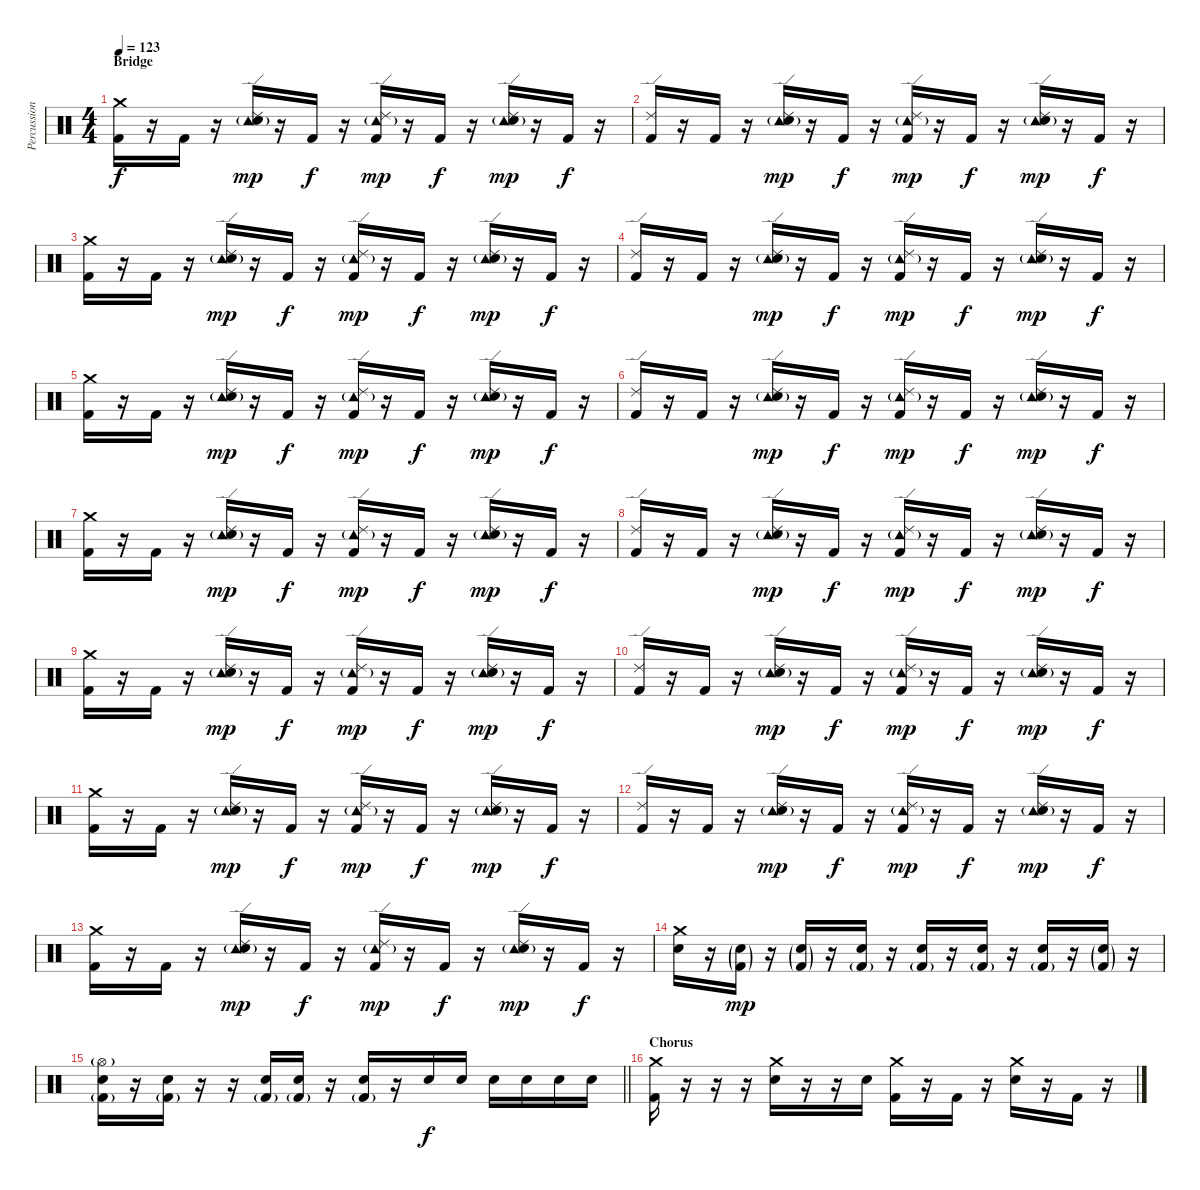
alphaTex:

\track ("Percussion" "Percussion") {instrument percussion}
\staff {score}
\articulation defaults
\ts (4 4)
\section ("" "Bridge")
\tempo 123
\clef neutral
\ks c
("Crash medium (hit)" "Kick (hit) 2").16{dy f} r.16 "Kick (hit) 2".16 r.16 ("Tambourine (hit)"{g} "Ride (edge) 2" "Electric Snare (hit)").16{dy mp} r.16 "Kick (hit) 2".16{dy f} r.16 ("Tambourine (hit)"{g} "Ride (edge) 2" "Kick (hit) 2").16{dy mp} r.16 "Kick (hit) 2".16{dy f} r.16 ("Tambourine (hit)"{g} "Ride (edge) 2" "Electric Snare (hit)").16{dy mp} r.16 "Kick (hit) 2".16{dy f} r.16 |
("Ride (edge) 2" "Kick (hit) 2").16 r.16 "Kick (hit) 2".16 r.16 ("Tambourine (hit)"{g} "Ride (edge) 2" "Electric Snare (hit)").16{dy mp} r.16 "Kick (hit) 2".16{dy f} r.16 ("Tambourine (hit)"{g} "Ride (edge) 2" "Kick (hit) 2").16{dy mp} r.16 "Kick (hit) 2".16{dy f} r.16 ("Tambourine (hit)"{g} "Ride (edge) 2" "Electric Snare (hit)").16{dy mp} r.16 "Kick (hit) 2".16{dy f} r.16 |
("Crash medium (hit)" "Kick (hit) 2").16 r.16 "Kick (hit) 2".16 r.16 ("Tambourine (hit)"{g} "Ride (edge) 2" "Electric Snare (hit)").16{dy mp} r.16 "Kick (hit) 2".16{dy f} r.16 ("Tambourine (hit)"{g} "Ride (edge) 2" "Kick (hit) 2").16{dy mp} r.16 "Kick (hit) 2".16{dy f} r.16 ("Tambourine (hit)"{g} "Ride (edge) 2" "Electric Snare (hit)").16{dy mp} r.16 "Kick (hit) 2".16{dy f} r.16 |
("Ride (edge) 2" "Kick (hit) 2").16 r.16 "Kick (hit) 2".16 r.16 ("Tambourine (hit)"{g} "Ride (edge) 2" "Electric Snare (hit)").16{dy mp} r.16 "Kick (hit) 2".16{dy f} r.16 ("Tambourine (hit)"{g} "Ride (edge) 2" "Kick (hit) 2").16{dy mp} r.16 "Kick (hit) 2".16{dy f} r.16 ("Tambourine (hit)"{g} "Ride (edge) 2" "Electric Snare (hit)").16{dy mp} r.16 "Kick (hit) 2".16{dy f} r.16 |
("Crash medium (hit)" "Kick (hit) 2").16 r.16 "Kick (hit) 2".16 r.16 ("Tambourine (hit)"{g} "Ride (edge) 2" "Electric Snare (hit)").16{dy mp} r.16 "Kick (hit) 2".16{dy f} r.16 ("Tambourine (hit)"{g} "Ride (edge) 2" "Kick (hit) 2").16{dy mp} r.16 "Kick (hit) 2".16{dy f} r.16 ("Tambourine (hit)"{g} "Ride (edge) 2" "Electric Snare (hit)").16{dy mp} r.16 "Kick (hit) 2".16{dy f} r.16 |
("Ride (edge) 2" "Kick (hit) 2").16 r.16 "Kick (hit) 2".16 r.16 ("Tambourine (hit)"{g} "Ride (edge) 2" "Electric Snare (hit)").16{dy mp} r.16 "Kick (hit) 2".16{dy f} r.16 ("Tambourine (hit)"{g} "Ride (edge) 2" "Kick (hit) 2").16{dy mp} r.16 "Kick (hit) 2".16{dy f} r.16 ("Tambourine (hit)"{g} "Ride (edge) 2" "Electric Snare (hit)").16{dy mp} r.16 "Kick (hit) 2".16{dy f} r.16 |
("Crash medium (hit)" "Kick (hit) 2").16 r.16 "Kick (hit) 2".16 r.16 ("Tambourine (hit)"{g} "Ride (edge) 2" "Electric Snare (hit)").16{dy mp} r.16 "Kick (hit) 2".16{dy f} r.16 ("Tambourine (hit)"{g} "Ride (edge) 2" "Kick (hit) 2").16{dy mp} r.16 "Kick (hit) 2".16{dy f} r.16 ("Tambourine (hit)"{g} "Ride (edge) 2" "Electric Snare (hit)").16{dy mp} r.16 "Kick (hit) 2".16{dy f} r.16 |
("Ride (edge) 2" "Kick (hit) 2").16 r.16 "Kick (hit) 2".16 r.16 ("Tambourine (hit)"{g} "Ride (edge) 2" "Electric Snare (hit)").16{dy mp} r.16 "Kick (hit) 2".16{dy f} r.16 ("Tambourine (hit)"{g} "Ride (edge) 2" "Kick (hit) 2").16{dy mp} r.16 "Kick (hit) 2".16{dy f} r.16 ("Tambourine (hit)"{g} "Ride (edge) 2" "Electric Snare (hit)").16{dy mp} r.16 "Kick (hit) 2".16{dy f} r.16 |
("Crash medium (hit)" "Kick (hit) 2").16 r.16 "Kick (hit) 2".16 r.16 ("Tambourine (hit)"{g} "Ride (edge) 2" "Electric Snare (hit)").16{dy mp} r.16 "Kick (hit) 2".16{dy f} r.16 ("Tambourine (hit)"{g} "Ride (edge) 2" "Kick (hit) 2").16{dy mp} r.16 "Kick (hit) 2".16{dy f} r.16 ("Tambourine (hit)"{g} "Ride (edge) 2" "Electric Snare (hit)").16{dy mp} r.16 "Kick (hit) 2".16{dy f} r.16 |
("Ride (edge) 2" "Kick (hit) 2").16 r.16 "Kick (hit) 2".16 r.16 ("Tambourine (hit)"{g} "Ride (edge) 2" "Electric Snare (hit)").16{dy mp} r.16 "Kick (hit) 2".16{dy f} r.16 ("Tambourine (hit)"{g} "Ride (edge) 2" "Kick (hit) 2").16{dy mp} r.16 "Kick (hit) 2".16{dy f} r.16 ("Tambourine (hit)"{g} "Ride (edge) 2" "Electric Snare (hit)").16{dy mp} r.16 "Kick (hit) 2".16{dy f} r.16 |
("Crash medium (hit)" "Kick (hit) 2").16 r.16 "Kick (hit) 2".16 r.16 ("Tambourine (hit)"{g} "Ride (edge) 2" "Electric Snare (hit)").16{dy mp} r.16 "Kick (hit) 2".16{dy f} r.16 ("Tambourine (hit)"{g} "Ride (edge) 2" "Kick (hit) 2").16{dy mp} r.16 "Kick (hit) 2".16{dy f} r.16 ("Tambourine (hit)"{g} "Ride (edge) 2" "Electric Snare (hit)").16{dy mp} r.16 "Kick (hit) 2".16{dy f} r.16 |
("Ride (edge) 2" "Kick (hit) 2").16 r.16 "Kick (hit) 2".16 r.16 ("Tambourine (hit)"{g} "Ride (edge) 2" "Electric Snare (hit)").16{dy mp} r.16 "Kick (hit) 2".16{dy f} r.16 ("Tambourine (hit)"{g} "Ride (edge) 2" "Kick (hit) 2").16{dy mp} r.16 "Kick (hit) 2".16{dy f} r.16 ("Tambourine (hit)"{g} "Ride (edge) 2" "Electric Snare (hit)").16{dy mp} r.16 "Kick (hit) 2".16{dy f} r.16 |
("Crash medium (hit)" "Kick (hit) 2").16 r.16 "Kick (hit) 2".16 r.16 ("Tambourine (hit)"{g} "Ride (edge) 2" "Electric Snare (hit)").16{dy mp} r.16 "Kick (hit) 2".16{dy f} r.16 ("Tambourine (hit)"{g} "Ride (edge) 2" "Kick (hit) 2").16{dy mp} r.16 "Kick (hit) 2".16{dy f} r.16 ("Tambourine (hit)"{g} "Ride (edge) 2" "Electric Snare (hit)").16{dy mp} r.16 "Kick (hit) 2".16{dy f} r.16 |
("Crash medium (hit)" "Electric Snare (hit)").16 r.16 ("Kick (hit) 2"{g} "Electric Snare (hit)"{g}).16{dy mp} r.16 ("Kick (hit) 2"{g} "Electric Snare (hit)"{g}).16 r.16 ("Kick (hit) 2"{g} "Electric Snare (hit)").16 r.16 ("Kick (hit) 2"{g} "Electric Snare (hit)").16 r.16 ("Kick (hit) 2"{g} "Electric Snare (hit)").16 r.16 ("Kick (hit) 2"{g} "Electric Snare (hit)").16 r.16 ("Kick (hit) 2"{g} "Electric Snare (hit)"{g}).16 r.16 |
\barLineRight lightlight
("Hi-Hat (open)"{g} "Kick (hit) 2"{g} "Electric Snare (hit)").16 r.16 ("Kick (hit) 2"{g} "Electric Snare (hit)").16 r.16 r.16 ("Kick (hit) 2"{g} "Electric Snare (hit)").16 ("Kick (hit) 2"{g} "Electric Snare (hit)").16 r.16 ("Kick (hit) 2"{g} "Electric Snare (hit)").16 r.16 "Electric Snare (hit)".16{dy f} "Electric Snare (hit)".16 "Electric Snare (hit)".16 "Electric Snare (hit)".16 "Electric Snare (hit)".16 "Electric Snare (hit)".16 |
\section ("" "Chorus")
("Crash medium (hit)" "Kick (hit) 2").16 r.16 r.16 r.16 ("Crash medium (hit)" "Electric Snare (hit)").16 r.16 r.16 "Electric Snare (hit)".16 ("Crash medium (hit)" "Kick (hit) 2").16 r.16 "Kick (hit) 2".16 r.16 ("Crash medium (hit)" "Electric Snare (hit)").16 r.16 "Kick (hit) 2".16 r.16
